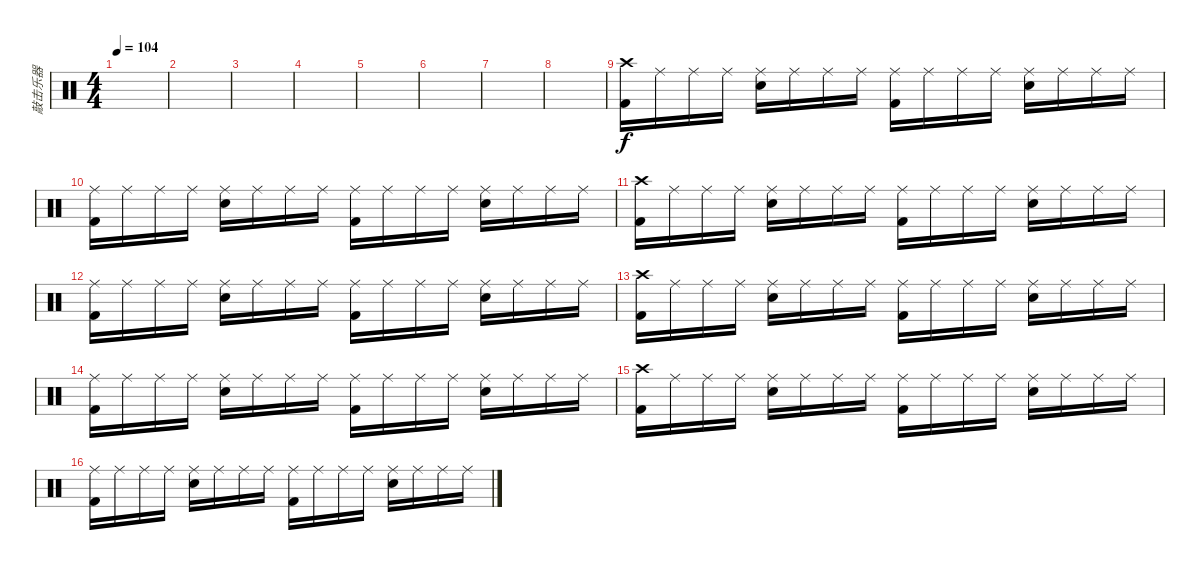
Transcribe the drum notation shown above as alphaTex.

\track ("敲击乐器" "敲击乐器") {instrument percussion}
\staff {score}
\articulation defaults
\ts (4 4)
\tempo 104
\clef neutral
\ks c
|
|
|
|
|
|
|
|
("Crash high (hit)" "Kick (hit) 2").16 "Ride (middle)".16 "Ride (middle)".16 "Ride (middle)".16 ("Ride (middle)" "Electric Snare (hit)").16 "Ride (middle)".16 "Ride (middle)".16 "Ride (middle)".16 ("Ride (middle)" "Kick (hit) 2").16 "Ride (middle)".16 "Ride (middle)".16 "Ride (middle)".16 ("Ride (middle)" "Electric Snare (hit)").16 "Ride (middle)".16 "Ride (middle)".16 "Ride (middle)".16 |
("Ride (middle)" "Kick (hit) 2").16 "Ride (middle)".16 "Ride (middle)".16 "Ride (middle)".16 ("Ride (middle)" "Electric Snare (hit)").16 "Ride (middle)".16 "Ride (middle)".16 "Ride (middle)".16 ("Ride (middle)" "Kick (hit) 2").16 "Ride (middle)".16 "Ride (middle)".16 "Ride (middle)".16 ("Ride (middle)" "Electric Snare (hit)").16 "Ride (middle)".16 "Ride (middle)".16 "Ride (middle)".16 |
("Crash high (hit)" "Kick (hit) 2").16 "Ride (middle)".16 "Ride (middle)".16 "Ride (middle)".16 ("Ride (middle)" "Electric Snare (hit)").16 "Ride (middle)".16 "Ride (middle)".16 "Ride (middle)".16 ("Ride (middle)" "Kick (hit) 2").16 "Ride (middle)".16 "Ride (middle)".16 "Ride (middle)".16 ("Ride (middle)" "Electric Snare (hit)").16 "Ride (middle)".16 "Ride (middle)".16 "Ride (middle)".16 |
("Ride (middle)" "Kick (hit) 2").16 "Ride (middle)".16 "Ride (middle)".16 "Ride (middle)".16 ("Ride (middle)" "Electric Snare (hit)").16 "Ride (middle)".16 "Ride (middle)".16 "Ride (middle)".16 ("Ride (middle)" "Kick (hit) 2").16 "Ride (middle)".16 "Ride (middle)".16 "Ride (middle)".16 ("Ride (middle)" "Electric Snare (hit)").16 "Ride (middle)".16 "Ride (middle)".16 "Ride (middle)".16 |
("Crash high (hit)" "Kick (hit) 2").16 "Ride (middle)".16 "Ride (middle)".16 "Ride (middle)".16 ("Ride (middle)" "Electric Snare (hit)").16 "Ride (middle)".16 "Ride (middle)".16 "Ride (middle)".16 ("Ride (middle)" "Kick (hit) 2").16 "Ride (middle)".16 "Ride (middle)".16 "Ride (middle)".16 ("Ride (middle)" "Electric Snare (hit)").16 "Ride (middle)".16 "Ride (middle)".16 "Ride (middle)".16 |
("Ride (middle)" "Kick (hit) 2").16 "Ride (middle)".16 "Ride (middle)".16 "Ride (middle)".16 ("Ride (middle)" "Electric Snare (hit)").16 "Ride (middle)".16 "Ride (middle)".16 "Ride (middle)".16 ("Ride (middle)" "Kick (hit) 2").16 "Ride (middle)".16 "Ride (middle)".16 "Ride (middle)".16 ("Ride (middle)" "Electric Snare (hit)").16 "Ride (middle)".16 "Ride (middle)".16 "Ride (middle)".16 |
("Crash high (hit)" "Kick (hit) 2").16 "Ride (middle)".16 "Ride (middle)".16 "Ride (middle)".16 ("Ride (middle)" "Electric Snare (hit)").16 "Ride (middle)".16 "Ride (middle)".16 "Ride (middle)".16 ("Ride (middle)" "Kick (hit) 2").16 "Ride (middle)".16 "Ride (middle)".16 "Ride (middle)".16 ("Ride (middle)" "Electric Snare (hit)").16 "Ride (middle)".16 "Ride (middle)".16 "Ride (middle)".16 |
("Ride (middle)" "Kick (hit) 2").16 "Ride (middle)".16 "Ride (middle)".16 "Ride (middle)".16 ("Ride (middle)" "Electric Snare (hit)").16 "Ride (middle)".16 "Ride (middle)".16 "Ride (middle)".16 ("Ride (middle)" "Kick (hit) 2").16 "Ride (middle)".16 "Ride (middle)".16 "Ride (middle)".16 ("Ride (middle)" "Electric Snare (hit)").16 "Ride (middle)".16 "Ride (middle)".16 "Ride (middle)".16
